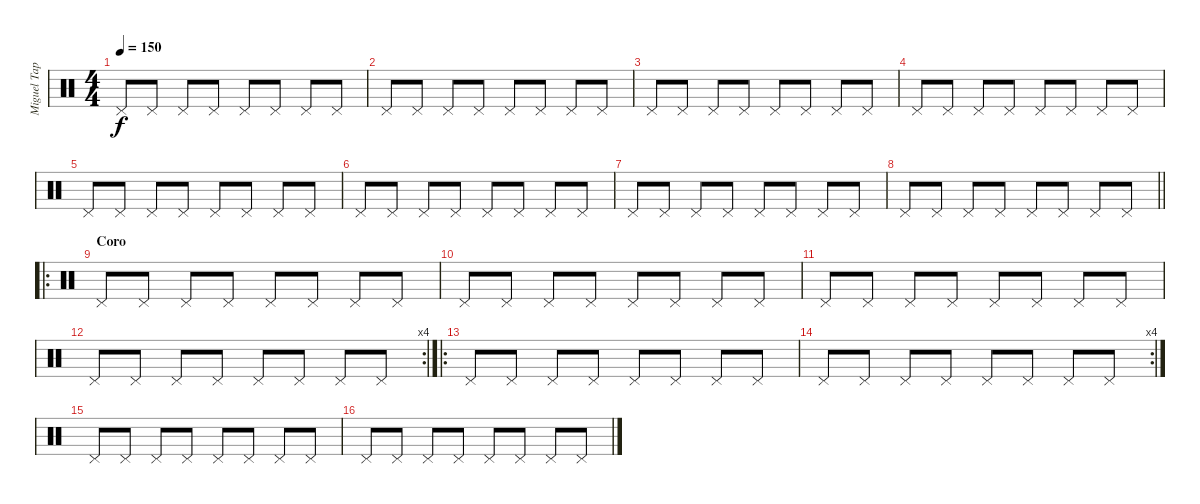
\track ("Miguel Tapia" "Miguel Tap") {instrument percussion}
\staff {score}
\articulation defaults
\ts (4 4)
\tempo 150
\clef neutral
\ks c "Pedal Hi-Hat (hit)".8{dy f} "Pedal Hi-Hat (hit)".8 "Pedal Hi-Hat (hit)".8 "Pedal Hi-Hat (hit)".8 "Pedal Hi-Hat (hit)".8 "Pedal Hi-Hat (hit)".8 "Pedal Hi-Hat (hit)".8 "Pedal Hi-Hat (hit)".8
|
"Pedal Hi-Hat (hit)".8 "Pedal Hi-Hat (hit)".8 "Pedal Hi-Hat (hit)".8 "Pedal Hi-Hat (hit)".8 "Pedal Hi-Hat (hit)".8 "Pedal Hi-Hat (hit)".8 "Pedal Hi-Hat (hit)".8 "Pedal Hi-Hat (hit)".8 |
"Pedal Hi-Hat (hit)".8 "Pedal Hi-Hat (hit)".8 "Pedal Hi-Hat (hit)".8 "Pedal Hi-Hat (hit)".8 "Pedal Hi-Hat (hit)".8 "Pedal Hi-Hat (hit)".8 "Pedal Hi-Hat (hit)".8 "Pedal Hi-Hat (hit)".8 |
"Pedal Hi-Hat (hit)".8 "Pedal Hi-Hat (hit)".8 "Pedal Hi-Hat (hit)".8 "Pedal Hi-Hat (hit)".8 "Pedal Hi-Hat (hit)".8 "Pedal Hi-Hat (hit)".8 "Pedal Hi-Hat (hit)".8 "Pedal Hi-Hat (hit)".8 |
"Pedal Hi-Hat (hit)".8 "Pedal Hi-Hat (hit)".8 "Pedal Hi-Hat (hit)".8 "Pedal Hi-Hat (hit)".8 "Pedal Hi-Hat (hit)".8 "Pedal Hi-Hat (hit)".8 "Pedal Hi-Hat (hit)".8 "Pedal Hi-Hat (hit)".8 |
"Pedal Hi-Hat (hit)".8 "Pedal Hi-Hat (hit)".8 "Pedal Hi-Hat (hit)".8 "Pedal Hi-Hat (hit)".8 "Pedal Hi-Hat (hit)".8 "Pedal Hi-Hat (hit)".8 "Pedal Hi-Hat (hit)".8 "Pedal Hi-Hat (hit)".8 |
"Pedal Hi-Hat (hit)".8 "Pedal Hi-Hat (hit)".8 "Pedal Hi-Hat (hit)".8 "Pedal Hi-Hat (hit)".8 "Pedal Hi-Hat (hit)".8 "Pedal Hi-Hat (hit)".8 "Pedal Hi-Hat (hit)".8 "Pedal Hi-Hat (hit)".8 |
\barLineRight lightlight "Pedal Hi-Hat (hit)".8 "Pedal Hi-Hat (hit)".8 "Pedal Hi-Hat (hit)".8 "Pedal Hi-Hat (hit)".8 "Pedal Hi-Hat (hit)".8 "Pedal Hi-Hat (hit)".8 "Pedal Hi-Hat (hit)".8 "Pedal Hi-Hat (hit)".8
|
\ro
\section ("" "Coro")
"Pedal Hi-Hat (hit)".8 "Pedal Hi-Hat (hit)".8 "Pedal Hi-Hat (hit)".8 "Pedal Hi-Hat (hit)".8 "Pedal Hi-Hat (hit)".8 "Pedal Hi-Hat (hit)".8 "Pedal Hi-Hat (hit)".8 "Pedal Hi-Hat (hit)".8 |
"Pedal Hi-Hat (hit)".8 "Pedal Hi-Hat (hit)".8 "Pedal Hi-Hat (hit)".8 "Pedal Hi-Hat (hit)".8 "Pedal Hi-Hat (hit)".8 "Pedal Hi-Hat (hit)".8 "Pedal Hi-Hat (hit)".8 "Pedal Hi-Hat (hit)".8 |
"Pedal Hi-Hat (hit)".8 "Pedal Hi-Hat (hit)".8 "Pedal Hi-Hat (hit)".8 "Pedal Hi-Hat (hit)".8 "Pedal Hi-Hat (hit)".8 "Pedal Hi-Hat (hit)".8 "Pedal Hi-Hat (hit)".8 "Pedal Hi-Hat (hit)".8 |
\rc 4 "Pedal Hi-Hat (hit)".8 "Pedal Hi-Hat (hit)".8 "Pedal Hi-Hat (hit)".8 "Pedal Hi-Hat (hit)".8 "Pedal Hi-Hat (hit)".8 "Pedal Hi-Hat (hit)".8 "Pedal Hi-Hat (hit)".8 "Pedal Hi-Hat (hit)".8
|
\ro "Pedal Hi-Hat (hit)".8 "Pedal Hi-Hat (hit)".8 "Pedal Hi-Hat (hit)".8 "Pedal Hi-Hat (hit)".8 "Pedal Hi-Hat (hit)".8 "Pedal Hi-Hat (hit)".8 "Pedal Hi-Hat (hit)".8 "Pedal Hi-Hat (hit)".8
|
\rc 4 "Pedal Hi-Hat (hit)".8 "Pedal Hi-Hat (hit)".8 "Pedal Hi-Hat (hit)".8 "Pedal Hi-Hat (hit)".8 "Pedal Hi-Hat (hit)".8 "Pedal Hi-Hat (hit)".8 "Pedal Hi-Hat (hit)".8 "Pedal Hi-Hat (hit)".8
|
"Pedal Hi-Hat (hit)".8 "Pedal Hi-Hat (hit)".8 "Pedal Hi-Hat (hit)".8 "Pedal Hi-Hat (hit)".8 "Pedal Hi-Hat (hit)".8 "Pedal Hi-Hat (hit)".8 "Pedal Hi-Hat (hit)".8 "Pedal Hi-Hat (hit)".8 |
"Pedal Hi-Hat (hit)".8 "Pedal Hi-Hat (hit)".8 "Pedal Hi-Hat (hit)".8 "Pedal Hi-Hat (hit)".8 "Pedal Hi-Hat (hit)".8 "Pedal Hi-Hat (hit)".8 "Pedal Hi-Hat (hit)".8 "Pedal Hi-Hat (hit)".8
